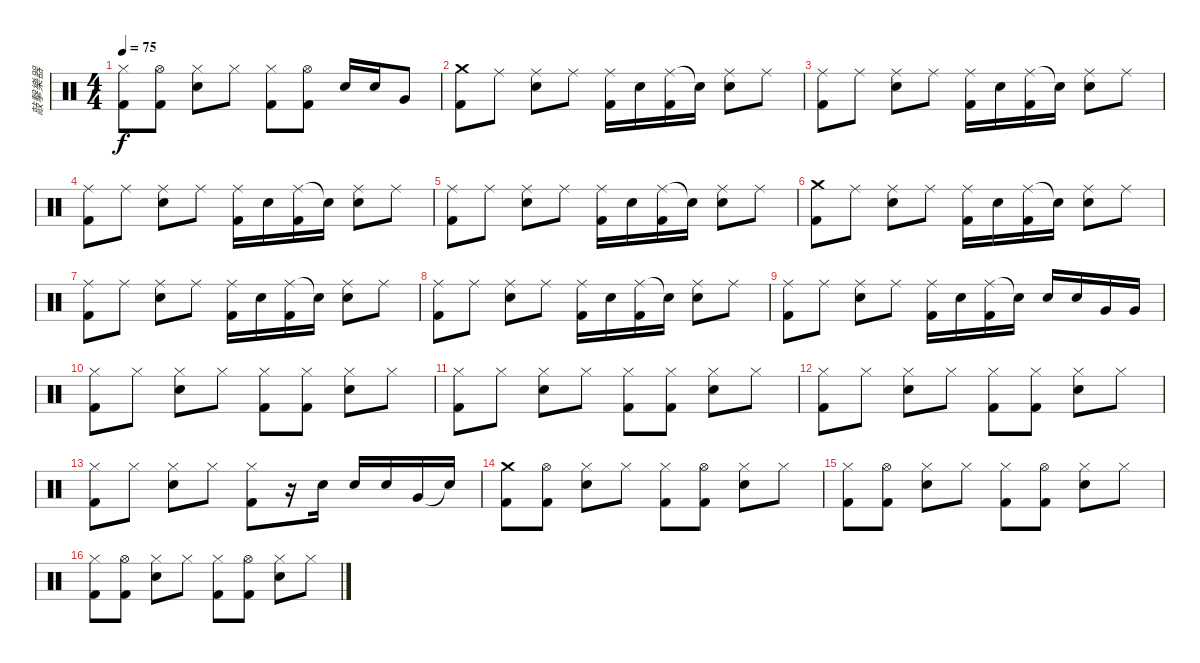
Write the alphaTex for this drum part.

\track ("敲擊樂器" "敲擊樂器") {instrument percussion}
\staff {score}
\articulation defaults
\ts (4 4)
\tempo 75
\clef neutral
\ks c
("Hi-Hat (closed)" "Kick (hit) 2").8{dy f} ("Hi-Hat (open)" "Kick (hit) 2").8 ("Hi-Hat (closed)" "Snare (hit) 2").8 "Hi-Hat (closed)".8 ("Hi-Hat (closed)" "Kick (hit) 2").8 ("Hi-Hat (open)" "Kick (hit) 2").8 "Snare (hit) 2".16 "Snare (hit) 2".16 "Very Low Tom (hit)".8 |
("Crash medium (hit)" "Kick (hit) 2").8 "Ride (middle)".8 ("Ride (middle)" "Snare (hit) 2").8 "Ride (middle)".8 ("Ride (middle)" "Kick (hit) 2").16 "Snare (hit) 2".16 ("Ride (middle)" "Kick (hit) 2").16 "Snare (hit)"{t}.16 ("Ride (middle)" "Snare (hit) 2").8 "Ride (middle)".8 |
("Ride (middle)" "Kick (hit) 2").8 "Ride (middle)".8 ("Ride (middle)" "Snare (hit) 2").8 "Ride (middle)".8 ("Ride (middle)" "Kick (hit) 2").16 "Snare (hit) 2".16 ("Ride (middle)" "Kick (hit) 2").16 "Snare (hit)"{t}.16 ("Ride (middle)" "Snare (hit) 2").8 "Ride (middle)".8 |
("Ride (middle)" "Kick (hit) 2").8 "Ride (middle)".8 ("Ride (middle)" "Snare (hit) 2").8 "Ride (middle)".8 ("Ride (middle)" "Kick (hit) 2").16 "Snare (hit) 2".16 ("Ride (middle)" "Kick (hit) 2").16 "Snare (hit)"{t}.16 ("Ride (middle)" "Snare (hit) 2").8 "Ride (middle)".8 |
("Ride (middle)" "Kick (hit) 2").8 "Ride (middle)".8 ("Ride (middle)" "Snare (hit) 2").8 "Ride (middle)".8 ("Ride (middle)" "Kick (hit) 2").16 "Snare (hit) 2".16 ("Ride (middle)" "Kick (hit) 2").16 "Snare (hit)"{t}.16 ("Ride (middle)" "Snare (hit) 2").8 "Ride (middle)".8 |
("Crash medium (hit)" "Kick (hit) 2").8 "Ride (middle)".8 ("Ride (middle)" "Snare (hit) 2").8 "Ride (middle)".8 ("Ride (middle)" "Kick (hit) 2").16 "Snare (hit) 2".16 ("Ride (middle)" "Kick (hit) 2").16 "Snare (hit)"{t}.16 ("Ride (middle)" "Snare (hit) 2").8 "Ride (middle)".8 |
("Ride (middle)" "Kick (hit) 2").8 "Ride (middle)".8 ("Ride (middle)" "Snare (hit) 2").8 "Ride (middle)".8 ("Ride (middle)" "Kick (hit) 2").16 "Snare (hit) 2".16 ("Ride (middle)" "Kick (hit) 2").16 "Snare (hit)"{t}.16 ("Ride (middle)" "Snare (hit) 2").8 "Ride (middle)".8 |
("Ride (middle)" "Kick (hit) 2").8 "Ride (middle)".8 ("Ride (middle)" "Snare (hit) 2").8 "Ride (middle)".8 ("Ride (middle)" "Kick (hit) 2").16 "Snare (hit) 2".16 ("Ride (middle)" "Kick (hit) 2").16 "Snare (hit)"{t}.16 ("Ride (middle)" "Snare (hit) 2").8 "Ride (middle)".8 |
("Ride (middle)" "Kick (hit) 2").8 "Ride (middle)".8 ("Ride (middle)" "Snare (hit) 2").8 "Ride (middle)".8 ("Ride (middle)" "Kick (hit) 2").16 "Snare (hit) 2".16 ("Ride (middle)" "Kick (hit) 2").16 "Snare (hit)"{t}.16 "Snare (hit) 2".16 "Snare (hit) 2".16 "Very Low Tom (hit)".16 "Very Low Tom (hit)".16 |
("Hi-Hat (closed)" "Kick (hit) 2").8 "Hi-Hat (closed)".8 ("Hi-Hat (closed)" "Snare (hit) 2").8 "Hi-Hat (closed)".8 ("Hi-Hat (closed)" "Kick (hit) 2").8 ("Hi-Hat (closed)" "Kick (hit) 2").8 ("Hi-Hat (closed)" "Snare (hit) 2").8 "Hi-Hat (closed)".8 |
("Hi-Hat (closed)" "Kick (hit) 2").8 "Hi-Hat (closed)".8 ("Hi-Hat (closed)" "Snare (hit) 2").8 "Hi-Hat (closed)".8 ("Hi-Hat (closed)" "Kick (hit) 2").8 ("Hi-Hat (closed)" "Kick (hit) 2").8 ("Hi-Hat (closed)" "Snare (hit) 2").8 "Hi-Hat (closed)".8 |
("Hi-Hat (closed)" "Kick (hit) 2").8 "Hi-Hat (closed)".8 ("Hi-Hat (closed)" "Snare (hit) 2").8 "Hi-Hat (closed)".8 ("Hi-Hat (closed)" "Kick (hit) 2").8 ("Hi-Hat (closed)" "Kick (hit) 2").8 ("Hi-Hat (closed)" "Snare (hit) 2").8 "Hi-Hat (closed)".8 |
("Hi-Hat (closed)" "Kick (hit) 2").8 "Hi-Hat (closed)".8 ("Hi-Hat (closed)" "Snare (hit) 2").8 "Hi-Hat (closed)".8 ("Hi-Hat (closed)" "Kick (hit) 2").8 r.16 "Snare (hit) 2".16 "Snare (hit) 2".16 "Snare (hit) 2".16 "Very Low Tom (hit)".16 "Snare (hit)"{t}.16 |
("Crash medium (hit)" "Kick (hit) 2").8 ("Hi-Hat (open)" "Kick (hit) 2").8 ("Hi-Hat (closed)" "Snare (hit) 2").8 "Hi-Hat (closed)".8 ("Hi-Hat (closed)" "Kick (hit) 2").8 ("Hi-Hat (open)" "Kick (hit) 2").8 ("Hi-Hat (closed)" "Snare (hit) 2").8 "Hi-Hat (closed)".8 |
("Hi-Hat (closed)" "Kick (hit) 2").8 ("Hi-Hat (open)" "Kick (hit) 2").8 ("Hi-Hat (closed)" "Snare (hit) 2").8 "Hi-Hat (closed)".8 ("Hi-Hat (closed)" "Kick (hit) 2").8 ("Hi-Hat (open)" "Kick (hit) 2").8 ("Hi-Hat (closed)" "Snare (hit) 2").8 "Hi-Hat (closed)".8 |
("Hi-Hat (closed)" "Kick (hit) 2").8 ("Hi-Hat (open)" "Kick (hit) 2").8 ("Hi-Hat (closed)" "Snare (hit) 2").8 "Hi-Hat (closed)".8 ("Hi-Hat (closed)" "Kick (hit) 2").8 ("Hi-Hat (open)" "Kick (hit) 2").8 ("Hi-Hat (closed)" "Snare (hit) 2").8 "Hi-Hat (closed)".8
